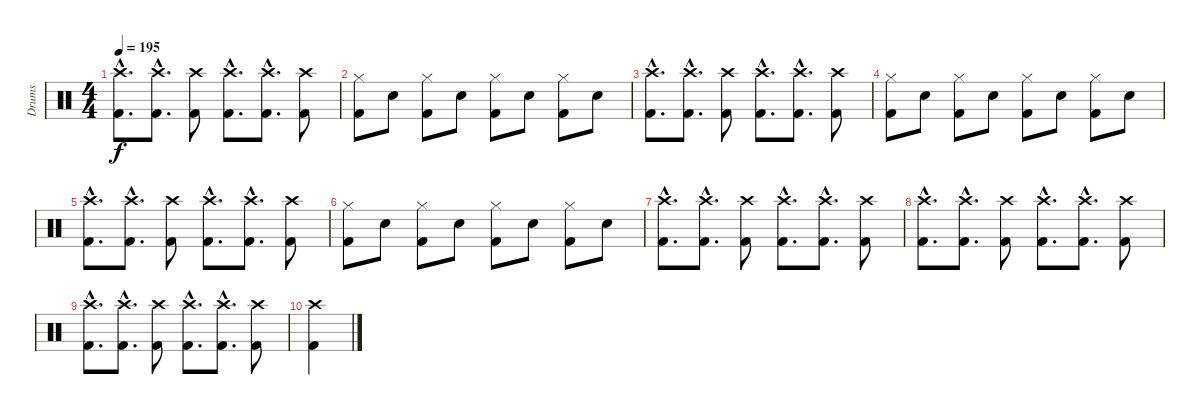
\track ("Drums" "Drums") {instrument percussion}
\staff {score}
\articulation defaults
\ts (4 4)
\tempo 195
\clef neutral
\ks c
("Crash high (hit)"{hac} "Kick (hit) 2"{hac}).8{d dy f} ("Crash high (hit)"{hac} "Kick (hit) 2"{hac}).8{d} ("Crash high (hit)" "Kick (hit) 2").8 ("Crash high (hit)"{hac} "Kick (hit) 2"{hac}).8{d} ("Crash high (hit)"{hac} "Kick (hit) 2"{hac}).8{d} ("Crash high (hit)" "Kick (hit) 2").8 |
("Kick (hit) 2" "Hi-Hat (closed)").8 "Snare (hit) 2".8 ("Kick (hit) 2" "Hi-Hat (closed)").8 "Snare (hit) 2".8 ("Kick (hit) 2" "Hi-Hat (closed)").8 "Snare (hit) 2".8 ("Kick (hit) 2" "Hi-Hat (closed)").8 "Snare (hit) 2".8 |
("Crash high (hit)"{hac} "Kick (hit) 2"{hac}).8{d} ("Crash high (hit)"{hac} "Kick (hit) 2"{hac}).8{d} ("Crash high (hit)" "Kick (hit) 2").8 ("Crash high (hit)"{hac} "Kick (hit) 2"{hac}).8{d} ("Crash high (hit)"{hac} "Kick (hit) 2"{hac}).8{d} ("Crash high (hit)" "Kick (hit) 2").8 |
("Kick (hit) 2" "Hi-Hat (closed)").8 "Snare (hit) 2".8 ("Kick (hit) 2" "Hi-Hat (closed)").8 "Snare (hit) 2".8 ("Kick (hit) 2" "Hi-Hat (closed)").8 "Snare (hit) 2".8 ("Kick (hit) 2" "Hi-Hat (closed)").8 "Snare (hit) 2".8 |
("Crash high (hit)"{hac} "Kick (hit) 2"{hac}).8{d} ("Crash high (hit)"{hac} "Kick (hit) 2"{hac}).8{d} ("Crash high (hit)" "Kick (hit) 2").8 ("Crash high (hit)"{hac} "Kick (hit) 2"{hac}).8{d} ("Crash high (hit)"{hac} "Kick (hit) 2"{hac}).8{d} ("Crash high (hit)" "Kick (hit) 2").8 |
("Kick (hit) 2" "Hi-Hat (closed)").8 "Snare (hit) 2".8 ("Kick (hit) 2" "Hi-Hat (closed)").8 "Snare (hit) 2".8 ("Kick (hit) 2" "Hi-Hat (closed)").8 "Snare (hit) 2".8 ("Kick (hit) 2" "Hi-Hat (closed)").8 "Snare (hit) 2".8 |
("Crash high (hit)"{hac} "Kick (hit) 2"{hac}).8{d} ("Crash high (hit)"{hac} "Kick (hit) 2"{hac}).8{d} ("Crash high (hit)" "Kick (hit) 2").8 ("Crash high (hit)"{hac} "Kick (hit) 2"{hac}).8{d} ("Crash high (hit)"{hac} "Kick (hit) 2"{hac}).8{d} ("Crash high (hit)" "Kick (hit) 2").8 |
("Crash high (hit)"{hac} "Kick (hit) 2"{hac}).8{d} ("Crash high (hit)"{hac} "Kick (hit) 2"{hac}).8{d} ("Crash high (hit)" "Kick (hit) 2").8 ("Crash high (hit)"{hac} "Kick (hit) 2"{hac}).8{d} ("Crash high (hit)"{hac} "Kick (hit) 2"{hac}).8{d} ("Crash high (hit)" "Kick (hit) 2").8 |
("Crash high (hit)"{hac} "Kick (hit) 2"{hac}).8{d} ("Crash high (hit)"{hac} "Kick (hit) 2"{hac}).8{d} ("Crash high (hit)" "Kick (hit) 2").8 ("Crash high (hit)"{hac} "Kick (hit) 2"{hac}).8{d} ("Crash high (hit)"{hac} "Kick (hit) 2"{hac}).8{d} ("Crash high (hit)" "Kick (hit) 2").8 |
("Kick (hit) 2" "Crash high (hit)").4
